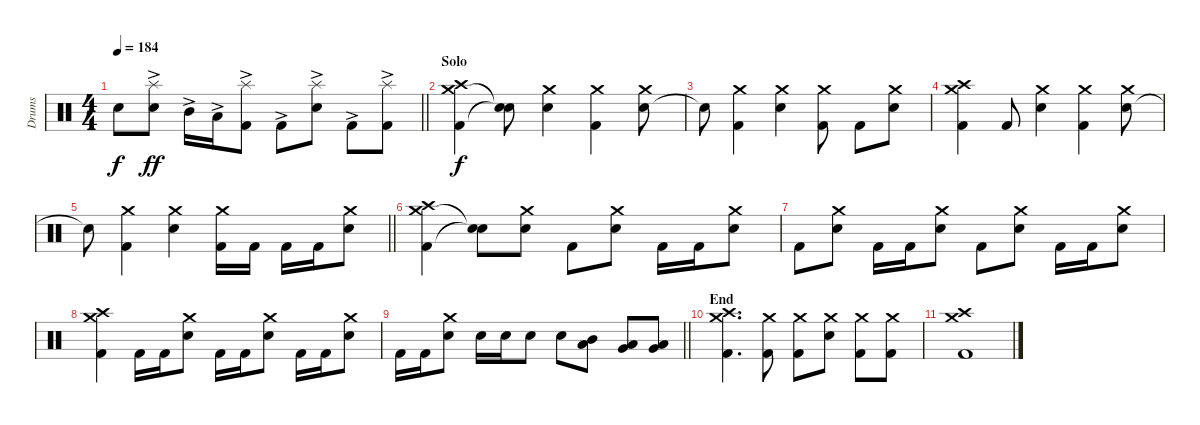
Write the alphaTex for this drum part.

\track ("Drums" "Drums") {instrument percussion}
\staff {score}
\articulation defaults
\ts (4 4)
\tempo 184
\clef neutral
\barLineRight lightlight
\ks c "Snare (hit)"{t}.8{dy f}
("Snare (hit) 2"{ac} "Splash (hit)").8{dy ff} "Mid Tom (hit)"{ac}.16 "Low Tom (hit)"{ac}.16 ("Kick (hit) 2"{ac} "Splash (hit)").8 "Kick (hit) 2"{ac}.8 ("Snare (hit) 2"{ac} "Splash (hit)").8 "Kick (hit) 2"{ac}.8 ("Kick (hit) 2"{ac} "Splash (hit)").8 |
\section ("" "Solo")
("Kick (hit) 2" "Crash medium (hit)" "Crash high (hit)").4{dy f} ("Snare (hit)"{t} "Snare (hit)"{t}).8 ("Snare (hit) 2" "Crash medium (hit)").4 ("Kick (hit) 2" "Crash medium (hit)").4 ("Snare (hit) 2" "Crash medium (hit)").8 |
"Snare (hit)"{t}.8 ("Kick (hit) 2" "Crash medium (hit)").4 ("Snare (hit) 2" "Crash medium (hit)").4 ("Kick (hit) 2" "Crash medium (hit)").8 "Kick (hit) 2".8 ("Snare (hit) 2" "Crash medium (hit)").8 |
("Kick (hit) 2" "Crash medium (hit)" "Crash high (hit)").4 "Kick (hit) 2".8 ("Snare (hit) 2" "Crash medium (hit)").4 ("Kick (hit) 2" "Crash medium (hit)").4 ("Snare (hit) 2" "Crash medium (hit)").8 |
\barLineRight lightlight "Snare (hit)"{t}.8
("Kick (hit) 2" "Crash medium (hit)").4 ("Snare (hit) 2" "Crash medium (hit)").4 ("Kick (hit) 2" "Crash medium (hit)").16 "Kick (hit) 2".16 "Kick (hit) 2".16 "Kick (hit) 2".16 ("Snare (hit) 2" "Crash medium (hit)").8 |
\section ("" "")
("Kick (hit) 2" "Crash medium (hit)" "Crash high (hit)").4 ("Snare (hit)"{t} "Snare (hit)"{t}).8 ("Snare (hit) 2" "Crash medium (hit)").8 "Kick (hit) 2".8 ("Snare (hit) 2" "Crash medium (hit)").8 "Kick (hit) 2".16 "Kick (hit) 2".16 ("Snare (hit) 2" "Crash medium (hit)").8 |
"Kick (hit) 2".8 ("Snare (hit) 2" "Crash medium (hit)").8 "Kick (hit) 2".16 "Kick (hit) 2".16 ("Snare (hit) 2" "Crash medium (hit)").8 "Kick (hit) 2".8 ("Snare (hit) 2" "Crash medium (hit)").8 "Kick (hit) 2".16 "Kick (hit) 2".16 ("Snare (hit) 2" "Crash medium (hit)").8 |
("Kick (hit) 2" "Crash medium (hit)" "Crash high (hit)").4 "Kick (hit) 2".16 "Kick (hit) 2".16 ("Snare (hit) 2" "Crash medium (hit)").8 "Kick (hit) 2".16 "Kick (hit) 2".16 ("Snare (hit) 2" "Crash medium (hit)").8 "Kick (hit) 2".16 "Kick (hit) 2".16 ("Snare (hit) 2" "Crash medium (hit)").8 |
\barLineRight lightlight "Kick (hit) 2".16 "Kick (hit) 2".16
("Snare (hit) 2" "Crash medium (hit)").8 "Snare (hit) 2".16 "Snare (hit) 2".16 "Snare (hit) 2".8 "Snare (hit) 2".8 ("Mid Tom (hit)" "Low Tom (hit)").8 ("Low Tom (hit)" "Very Low Tom (hit)").8 ("Very Low Tom (hit)" "Low Floor Tom (hit)").8 |
\section ("" "End")
("Kick (hit) 2" "Crash medium (hit)" "Crash high (hit)").4{d} ("Kick (hit) 2" "Crash medium (hit)").8 ("Kick (hit) 2" "Crash medium (hit)").8 ("Snare (hit) 2" "Crash medium (hit)").8 ("Kick (hit) 2" "Crash medium (hit)").8 ("Kick (hit) 2" "Crash medium (hit)").8 |
("Kick (hit) 2" "Crash medium (hit)" "Crash high (hit)").1
